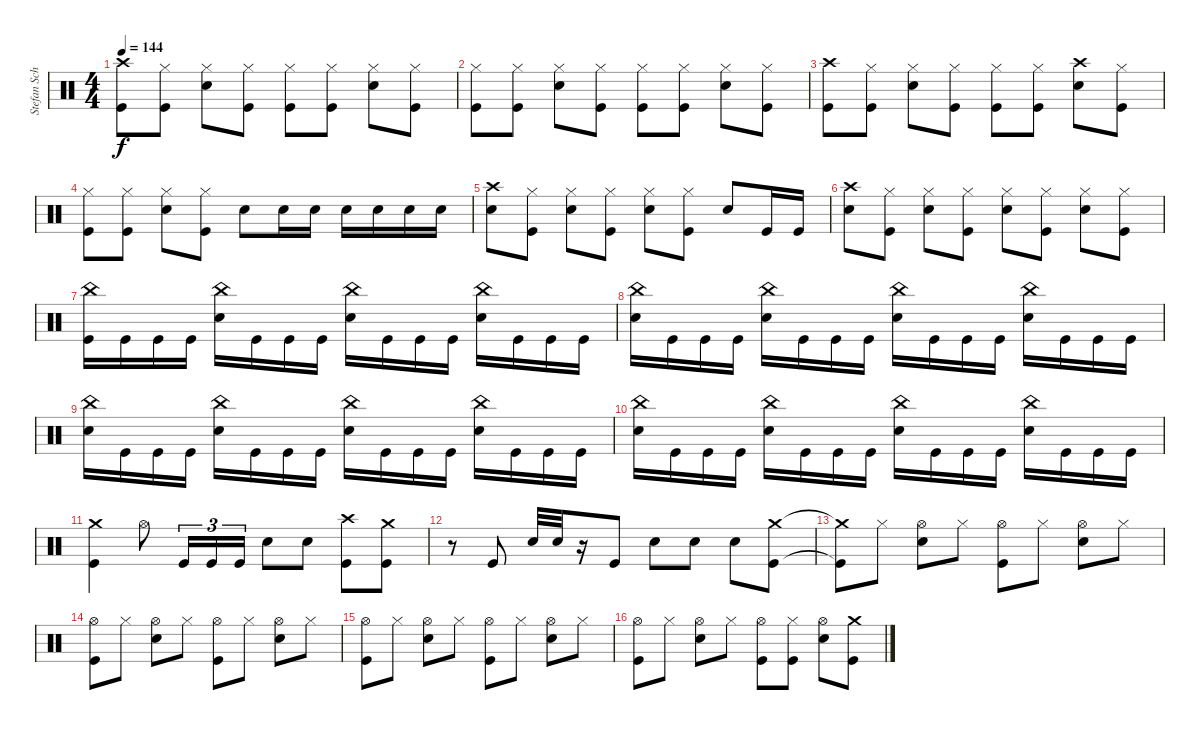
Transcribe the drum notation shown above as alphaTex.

\track ("Stefan Schwarzmann" "Stefan Sch") {instrument percussion}
\staff {score}
\articulation defaults
\ts (4 4)
\tempo 144
\clef neutral
\ks c
("Kick (hit)" "Crash high (hit)").8{dy f} ("Kick (hit)" "Hi-Hat (closed)").8 ("Snare (hit) 2" "Hi-Hat (closed)").8 ("Kick (hit)" "Hi-Hat (closed)").8 ("Kick (hit)" "Hi-Hat (closed)").8 ("Kick (hit)" "Hi-Hat (closed)").8 ("Snare (hit) 2" "Hi-Hat (closed)").8 ("Kick (hit)" "Hi-Hat (closed)").8 |
("Kick (hit)" "Hi-Hat (closed)").8 ("Kick (hit)" "Hi-Hat (closed)").8 ("Snare (hit) 2" "Hi-Hat (closed)").8 ("Kick (hit)" "Hi-Hat (closed)").8 ("Kick (hit)" "Hi-Hat (closed)").8 ("Kick (hit)" "Hi-Hat (closed)").8 ("Snare (hit) 2" "Hi-Hat (closed)").8 ("Kick (hit)" "Hi-Hat (closed)").8 |
("Kick (hit)" "Crash high (hit)").8 ("Kick (hit)" "Hi-Hat (closed)").8 ("Snare (hit) 2" "Hi-Hat (closed)").8 ("Kick (hit)" "Hi-Hat (closed)").8 ("Kick (hit)" "Hi-Hat (closed)").8 ("Kick (hit)" "Hi-Hat (closed)").8 ("Snare (hit) 2" "Crash high (hit)").8 ("Kick (hit)" "Hi-Hat (closed)").8 |
("Kick (hit)" "Hi-Hat (closed)").8 ("Kick (hit)" "Hi-Hat (closed)").8 ("Snare (hit) 2" "Hi-Hat (closed)").8 ("Kick (hit)" "Hi-Hat (closed)").8 "Snare (hit) 2".8 "Snare (hit) 2".16 "Snare (hit) 2".16 "Snare (hit) 2".16 "Snare (hit) 2".16 "Snare (hit) 2".16 "Snare (hit) 2".16 |
("Crash high (hit)" "Snare (hit) 2").8 ("Kick (hit)" "Hi-Hat (closed)").8 ("Snare (hit) 2" "Hi-Hat (closed)").8 ("Kick (hit)" "Hi-Hat (closed)").8 ("Snare (hit) 2" "Hi-Hat (closed)").8 ("Kick (hit)" "Hi-Hat (closed)").8 "Snare (hit) 2".8 "Kick (hit)".16 "Kick (hit)".16 |
("Crash high (hit)" "Snare (hit) 2").8 ("Kick (hit)" "Hi-Hat (closed)").8 ("Snare (hit) 2" "Hi-Hat (closed)").8 ("Kick (hit)" "Hi-Hat (closed)").8 ("Snare (hit) 2" "Hi-Hat (closed)").8 ("Kick (hit)" "Hi-Hat (closed)").8 ("Snare (hit) 2" "Hi-Hat (closed)").8 ("Kick (hit)" "Hi-Hat (closed)").8 |
("Kick (hit)" "China (hit)").16 "Kick (hit)".16 "Kick (hit)".16 "Kick (hit)".16 ("Snare (hit) 2" "China (hit)").16 "Kick (hit)".16 "Kick (hit)".16 "Kick (hit)".16 ("Snare (hit) 2" "China (hit)").16 "Kick (hit)".16 "Kick (hit)".16 "Kick (hit)".16 ("Snare (hit) 2" "China (hit)").16 "Kick (hit)".16 "Kick (hit)".16 "Kick (hit)".16 |
("Snare (hit) 2" "China (hit)").16 "Kick (hit)".16 "Kick (hit)".16 "Kick (hit)".16 ("Snare (hit) 2" "China (hit)").16 "Kick (hit)".16 "Kick (hit)".16 "Kick (hit)".16 ("Snare (hit) 2" "China (hit)").16 "Kick (hit)".16 "Kick (hit)".16 "Kick (hit)".16 ("Snare (hit) 2" "China (hit)").16 "Kick (hit)".16 "Kick (hit)".16 "Kick (hit)".16 |
("Snare (hit) 2" "China (hit)").16 "Kick (hit)".16 "Kick (hit)".16 "Kick (hit)".16 ("Snare (hit) 2" "China (hit)").16 "Kick (hit)".16 "Kick (hit)".16 "Kick (hit)".16 ("Snare (hit) 2" "China (hit)").16 "Kick (hit)".16 "Kick (hit)".16 "Kick (hit)".16 ("Snare (hit) 2" "China (hit)").16 "Kick (hit)".16 "Kick (hit)".16 "Kick (hit)".16 |
("Snare (hit) 2" "China (hit)").16 "Kick (hit)".16 "Kick (hit)".16 "Kick (hit)".16 ("Snare (hit) 2" "China (hit)").16 "Kick (hit)".16 "Kick (hit)".16 "Kick (hit)".16 ("Snare (hit) 2" "China (hit)").16 "Kick (hit)".16 "Kick (hit)".16 "Kick (hit)".16 ("Snare (hit) 2" "China (hit)").16 "Kick (hit)".16 "Kick (hit)".16 "Kick (hit)".16 |
("Kick (hit)" "Crash medium (hit)").4 "Hi-Hat (open)".8 "Kick (hit)".16{tu (3 2)} "Kick (hit)".16{tu (3 2)} "Kick (hit)".16{tu (3 2)} "Snare (hit) 2".8 "Snare (hit) 2".8 ("Kick (hit)" "Crash high (hit)").8 ("Kick (hit)" "Crash medium (hit)").8 |
r.8 "Kick (hit)".8 "Snare (hit) 2".32 "Snare (hit) 2".32 r.16 "Kick (hit)".8 "Snare (hit) 2".8 "Snare (hit) 2".8 "Snare (hit) 2".8 ("Kick (hit)" "Crash medium (hit)").8 |
("Kick (hit)"{t} "Crash medium (hit)"{t}).8 "Hi-Hat (closed)".8 ("Snare (hit) 2" "Hi-Hat (open)").8 "Hi-Hat (closed)".8 ("Kick (hit)" "Hi-Hat (open)").8 "Hi-Hat (closed)".8 ("Snare (hit) 2" "Hi-Hat (open)").8 "Hi-Hat (closed)".8 |
("Kick (hit)" "Hi-Hat (open)").8 "Hi-Hat (closed)".8 ("Snare (hit) 2" "Hi-Hat (open)").8 "Hi-Hat (closed)".8 ("Kick (hit)" "Hi-Hat (open)").8 "Hi-Hat (closed)".8 ("Snare (hit) 2" "Hi-Hat (open)").8 "Hi-Hat (closed)".8 |
("Kick (hit)" "Hi-Hat (open)").8 "Hi-Hat (closed)".8 ("Snare (hit) 2" "Hi-Hat (open)").8 "Hi-Hat (closed)".8 ("Kick (hit)" "Hi-Hat (open)").8 "Hi-Hat (closed)".8 ("Snare (hit) 2" "Hi-Hat (open)").8 "Hi-Hat (closed)".8 |
("Kick (hit)" "Hi-Hat (open)").8 "Hi-Hat (closed)".8 ("Snare (hit) 2" "Hi-Hat (open)").8 "Hi-Hat (closed)".8 ("Kick (hit)" "Hi-Hat (open)").8 ("Kick (hit)" "Hi-Hat (closed)").8 ("Snare (hit) 2" "Hi-Hat (open)").8 ("Crash medium (hit)" "Kick (hit)").8
